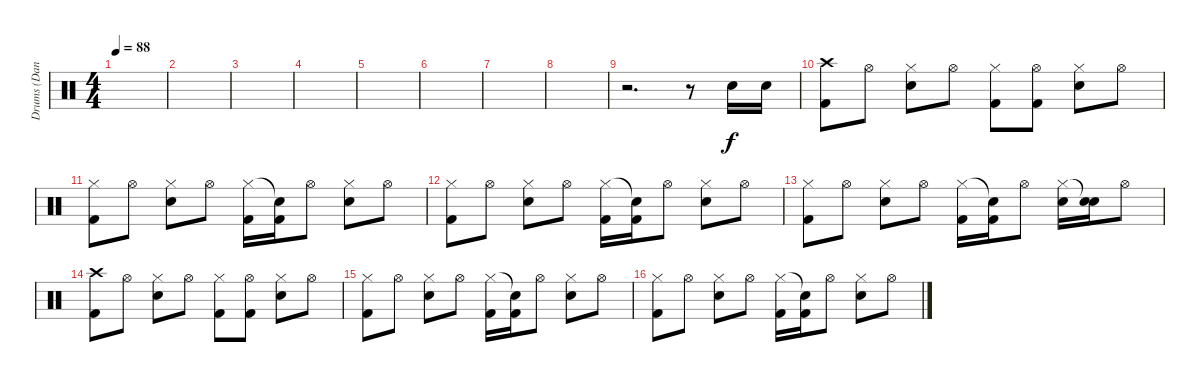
\track ("Drums (Daniel)" "Drums (Dan") {instrument percussion}
\staff {score}
\articulation defaults
\ts (4 4)
\tempo 88
\clef neutral
\ks c
|
|
|
|
|
|
|
|
r.2{d} r.8 "Electric Snare (hit)".16 "Electric Snare (hit)".16 |
("Crash high (hit)" "Kick (hit) 2").8 "Hi-Hat (open)".8 ("Hi-Hat (closed)" "Electric Snare (hit)").8 "Hi-Hat (open)".8 ("Hi-Hat (closed)" "Kick (hit) 2").8 ("Hi-Hat (open)" "Kick (hit) 2").8 ("Hi-Hat (closed)" "Electric Snare (hit)").8 "Hi-Hat (open)".8 |
("Hi-Hat (closed)" "Kick (hit) 2").8 "Hi-Hat (open)".8 ("Hi-Hat (closed)" "Electric Snare (hit)").8 "Hi-Hat (open)".8 ("Hi-Hat (closed)" "Kick (hit) 2").16 ("Snare (hit)"{t} "Kick (hit) 2").16 "Hi-Hat (open)".8 ("Hi-Hat (closed)" "Electric Snare (hit)").8 "Hi-Hat (open)".8 |
("Hi-Hat (closed)" "Kick (hit) 2").8 "Hi-Hat (open)".8 ("Hi-Hat (closed)" "Electric Snare (hit)").8 "Hi-Hat (open)".8 ("Hi-Hat (closed)" "Kick (hit) 2").16 ("Snare (hit)"{t} "Kick (hit) 2").16 "Hi-Hat (open)".8 ("Hi-Hat (closed)" "Electric Snare (hit)").8 "Hi-Hat (open)".8 |
("Hi-Hat (closed)" "Kick (hit) 2").8 "Hi-Hat (open)".8 ("Hi-Hat (closed)" "Electric Snare (hit)").8 "Hi-Hat (open)".8 ("Hi-Hat (closed)" "Kick (hit) 2").16 ("Snare (hit)"{t} "Kick (hit) 2").16 "Hi-Hat (open)".8 ("Hi-Hat (closed)" "Electric Snare (hit)").16 ("Snare (hit)"{t} "Electric Snare (hit)").16 "Hi-Hat (open)".8 |
("Crash high (hit)" "Kick (hit) 2").8 "Hi-Hat (open)".8 ("Hi-Hat (closed)" "Electric Snare (hit)").8 "Hi-Hat (open)".8 ("Hi-Hat (closed)" "Kick (hit) 2").8 ("Hi-Hat (open)" "Kick (hit) 2").8 ("Hi-Hat (closed)" "Electric Snare (hit)").8 "Hi-Hat (open)".8 |
("Hi-Hat (closed)" "Kick (hit) 2").8 "Hi-Hat (open)".8 ("Hi-Hat (closed)" "Electric Snare (hit)").8 "Hi-Hat (open)".8 ("Hi-Hat (closed)" "Kick (hit) 2").16 ("Snare (hit)"{t} "Kick (hit) 2").16 "Hi-Hat (open)".8 ("Hi-Hat (closed)" "Electric Snare (hit)").8 "Hi-Hat (open)".8 |
("Hi-Hat (closed)" "Kick (hit) 2").8 "Hi-Hat (open)".8 ("Hi-Hat (closed)" "Electric Snare (hit)").8 "Hi-Hat (open)".8 ("Hi-Hat (closed)" "Kick (hit) 2").16 ("Snare (hit)"{t} "Kick (hit) 2").16 "Hi-Hat (open)".8 ("Hi-Hat (closed)" "Electric Snare (hit)").8 "Hi-Hat (open)".8
